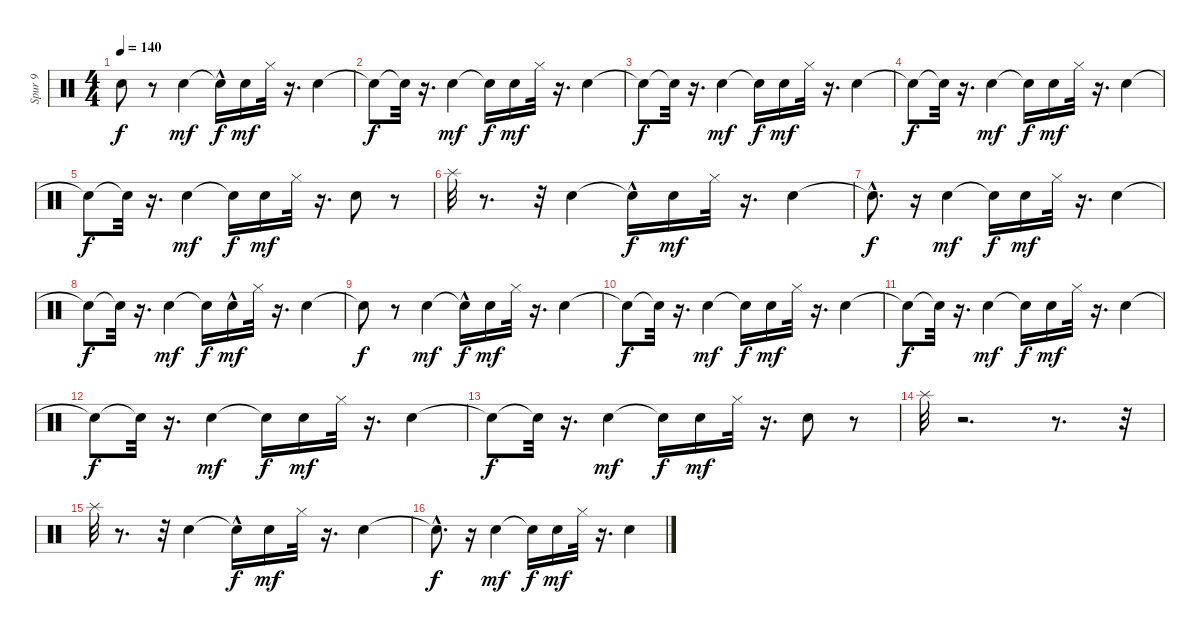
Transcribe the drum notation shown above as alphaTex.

\track ("Spur 9" "Spur 9") {instrument percussion}
\staff {score}
\articulation defaults
\ts (4 4)
\tempo 140
\clef neutral
\ks c "Snare (hit)"{t}.8{dy f}
r.8 "Electric Snare (hit)".4{dy mf} "Snare (hit)"{hac t}.16{dy f} "Snare (hit)".16{dy mf} "Hi-Hat (closed)".32 r.16{d} "Electric Snare (hit)".4 |
"Snare (hit)"{t}.8{dy f} "Snare (hit)"{t}.32 r.16{d} "Electric Snare (hit)".4{dy mf} "Snare (hit)"{t}.16{dy f} "Snare (hit)".16{dy mf} "Hi-Hat (closed)".32 r.16{d} "Electric Snare (hit)".4 |
"Snare (hit)"{t}.8{dy f} "Snare (hit)"{t}.32 r.16{d} "Electric Snare (hit)".4{dy mf} "Snare (hit)"{t}.16{dy f} "Snare (hit)".16{dy mf} "Hi-Hat (closed)".32 r.16{d} "Electric Snare (hit)".4 |
"Snare (hit)"{t}.8{dy f} "Snare (hit)"{t}.32 r.16{d} "Electric Snare (hit)".4{dy mf} "Snare (hit)"{t}.16{dy f} "Snare (hit)".16{dy mf} "Hi-Hat (closed)".32 r.16{d} "Electric Snare (hit)".4 |
"Snare (hit)"{t}.8{dy f} "Snare (hit)"{t}.32 r.16{d} "Electric Snare (hit)".4{dy mf} "Snare (hit)"{t}.16{dy f} "Snare (hit)".16{dy mf} "Hi-Hat (closed)".32 r.16{d} "Electric Snare (hit)".8 r.8 |
"Splash (hit)".32 r.8{d} r.32 "Electric Snare (hit)".4 "Snare (hit)"{hac t}.16{dy f} "Snare (hit)".16{dy mf} "Hi-Hat (closed)".32 r.16{d} "Electric Snare (hit)".4 |
"Snare (hit)"{hac t}.8{d dy f} r.16 "Electric Snare (hit)".4{dy mf} "Snare (hit)"{t}.16{dy f} "Snare (hit)".16{dy mf} "Hi-Hat (closed)".32 r.16{d} "Electric Snare (hit)".4 |
"Snare (hit)"{t}.8{dy f} "Snare (hit)"{t}.32 r.16{d} "Electric Snare (hit)".4{dy mf} "Snare (hit)"{t}.16{dy f} "Snare (hit)"{hac}.16{dy mf} "Hi-Hat (closed)".32 r.16{d} "Electric Snare (hit)".4 |
"Snare (hit)"{t}.8{dy f} r.8 "Electric Snare (hit)".4{dy mf} "Snare (hit)"{hac t}.16{dy f} "Snare (hit)".16{dy mf} "Hi-Hat (closed)".32 r.16{d} "Electric Snare (hit)".4 |
"Snare (hit)"{t}.8{dy f} "Snare (hit)"{t}.32 r.16{d} "Electric Snare (hit)".4{dy mf} "Snare (hit)"{t}.16{dy f} "Snare (hit)".16{dy mf} "Hi-Hat (closed)".32 r.16{d} "Electric Snare (hit)".4 |
"Snare (hit)"{t}.8{dy f} "Snare (hit)"{t}.32 r.16{d} "Electric Snare (hit)".4{dy mf} "Snare (hit)"{t}.16{dy f} "Snare (hit)".16{dy mf} "Hi-Hat (closed)".32 r.16{d} "Electric Snare (hit)".4 |
"Snare (hit)"{t}.8{dy f} "Snare (hit)"{t}.32 r.16{d} "Electric Snare (hit)".4{dy mf} "Snare (hit)"{t}.16{dy f} "Snare (hit)".16{dy mf} "Hi-Hat (closed)".32 r.16{d} "Electric Snare (hit)".4 |
"Snare (hit)"{t}.8{dy f} "Snare (hit)"{t}.32 r.16{d} "Electric Snare (hit)".4{dy mf} "Snare (hit)"{t}.16{dy f} "Snare (hit)".16{dy mf} "Hi-Hat (closed)".32 r.16{d} "Electric Snare (hit)".8 r.8 |
"Splash (hit)".32 r.2{d} r.8{d} r.32 |
"Splash (hit)".32 r.8{d} r.32 "Electric Snare (hit)".4 "Snare (hit)"{hac t}.16{dy f} "Snare (hit)".16{dy mf} "Hi-Hat (closed)".32 r.16{d} "Electric Snare (hit)".4 |
"Snare (hit)"{hac t}.8{d dy f} r.16 "Electric Snare (hit)".4{dy mf} "Snare (hit)"{t}.16{dy f} "Snare (hit)".16{dy mf} "Hi-Hat (closed)".32 r.16{d} "Electric Snare (hit)".4
